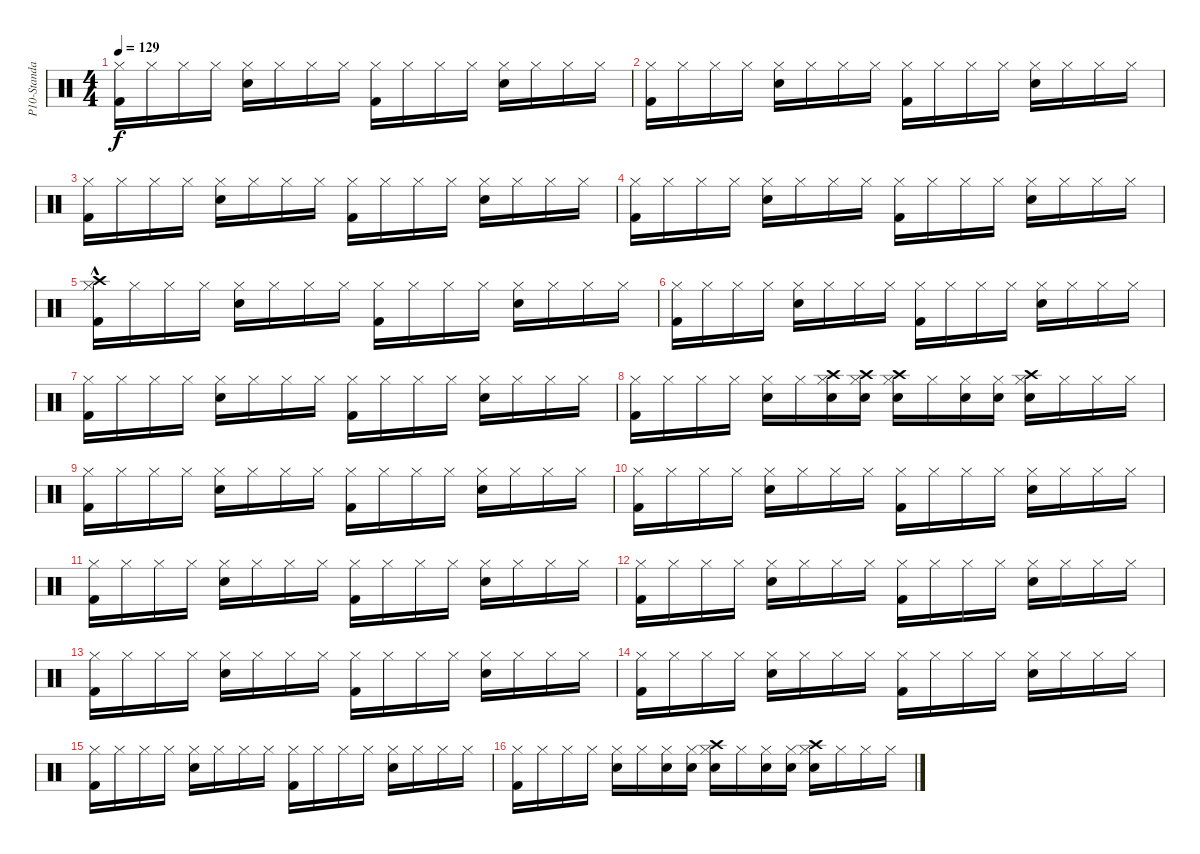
\track ("P10-Standard Kit 2" "P10-Standa") {instrument percussion}
\staff {score}
\articulation defaults
\ts (4 4)
\tempo 129
\clef neutral
\ks c
("Kick (hit) 2" "Hi-Hat (closed)").16{dy f} "Hi-Hat (closed)".16 "Hi-Hat (closed)".16 "Hi-Hat (closed)".16 ("Hi-Hat (closed)" "Snare (hit) 2").16 "Hi-Hat (closed)".16 "Hi-Hat (closed)".16 "Hi-Hat (closed)".16 ("Kick (hit) 2" "Hi-Hat (closed)").16 "Hi-Hat (closed)".16 "Hi-Hat (closed)".16 "Hi-Hat (closed)".16 ("Snare (hit) 2" "Hi-Hat (closed)").16 "Hi-Hat (closed)".16 "Hi-Hat (closed)".16 "Hi-Hat (closed)".16 |
("Kick (hit) 2" "Hi-Hat (closed)").16 "Hi-Hat (closed)".16 "Hi-Hat (closed)".16 "Hi-Hat (closed)".16 ("Snare (hit) 2" "Hi-Hat (closed)").16 "Hi-Hat (closed)".16 "Hi-Hat (closed)".16 "Hi-Hat (closed)".16 ("Hi-Hat (closed)" "Kick (hit) 2").16 "Hi-Hat (closed)".16 "Hi-Hat (closed)".16 "Hi-Hat (closed)".16 ("Snare (hit) 2" "Hi-Hat (closed)").16 "Hi-Hat (closed)".16 "Hi-Hat (closed)".16 "Hi-Hat (closed)".16 |
("Kick (hit) 2" "Hi-Hat (closed)").16 "Hi-Hat (closed)".16 "Hi-Hat (closed)".16 "Hi-Hat (closed)".16 ("Snare (hit) 2" "Hi-Hat (closed)").16 "Hi-Hat (closed)".16 "Hi-Hat (closed)".16 "Hi-Hat (closed)".16 ("Hi-Hat (closed)" "Kick (hit) 2").16 "Hi-Hat (closed)".16 "Hi-Hat (closed)".16 "Hi-Hat (closed)".16 ("Snare (hit) 2" "Hi-Hat (closed)").16 "Hi-Hat (closed)".16 "Hi-Hat (closed)".16 "Hi-Hat (closed)".16 |
("Kick (hit) 2" "Hi-Hat (closed)").16 "Hi-Hat (closed)".16 "Hi-Hat (closed)".16 "Hi-Hat (closed)".16 ("Hi-Hat (closed)" "Snare (hit) 2").16 "Hi-Hat (closed)".16 "Hi-Hat (closed)".16 "Hi-Hat (closed)".16 ("Kick (hit) 2" "Hi-Hat (closed)").16 "Hi-Hat (closed)".16 "Hi-Hat (closed)".16 "Hi-Hat (closed)".16 ("Hi-Hat (closed)" "Snare (hit) 2").16 "Hi-Hat (closed)".16 "Hi-Hat (closed)".16 "Hi-Hat (closed)".16 |
("Hi-Hat (closed)" "Kick (hit) 2" "Crash high (hit)"{hac}).16 "Hi-Hat (closed)".16 "Hi-Hat (closed)".16 "Hi-Hat (closed)".16 ("Snare (hit) 2" "Hi-Hat (closed)").16 "Hi-Hat (closed)".16 "Hi-Hat (closed)".16 "Hi-Hat (closed)".16 ("Kick (hit) 2" "Hi-Hat (closed)").16 "Hi-Hat (closed)".16 "Hi-Hat (closed)".16 "Hi-Hat (closed)".16 ("Snare (hit) 2" "Hi-Hat (closed)").16 "Hi-Hat (closed)".16 "Hi-Hat (closed)".16 "Hi-Hat (closed)".16 |
("Kick (hit) 2" "Hi-Hat (closed)").16 "Hi-Hat (closed)".16 "Hi-Hat (closed)".16 "Hi-Hat (closed)".16 ("Hi-Hat (closed)" "Snare (hit) 2").16 "Hi-Hat (closed)".16 "Hi-Hat (closed)".16 "Hi-Hat (closed)".16 ("Kick (hit) 2" "Hi-Hat (closed)").16 "Hi-Hat (closed)".16 "Hi-Hat (closed)".16 "Hi-Hat (closed)".16 ("Snare (hit) 2" "Hi-Hat (closed)").16 "Hi-Hat (closed)".16 "Hi-Hat (closed)".16 "Hi-Hat (closed)".16 |
("Kick (hit) 2" "Hi-Hat (closed)").16 "Hi-Hat (closed)".16 "Hi-Hat (closed)".16 "Hi-Hat (closed)".16 ("Snare (hit) 2" "Hi-Hat (closed)").16 "Hi-Hat (closed)".16 "Hi-Hat (closed)".16 "Hi-Hat (closed)".16 ("Hi-Hat (closed)" "Kick (hit) 2").16 "Hi-Hat (closed)".16 "Hi-Hat (closed)".16 "Hi-Hat (closed)".16 ("Snare (hit) 2" "Hi-Hat (closed)").16 "Hi-Hat (closed)".16 "Hi-Hat (closed)".16 "Hi-Hat (closed)".16 |
("Hi-Hat (closed)" "Kick (hit) 2").16 "Hi-Hat (closed)".16 "Hi-Hat (closed)".16 "Hi-Hat (closed)".16 ("Snare (hit) 2" "Hi-Hat (closed)").16 "Hi-Hat (closed)".16 ("Hi-Hat (closed)" "Snare (hit) 2" "Crash high (hit)").16 ("Hi-Hat (closed)" "Snare (hit) 2" "Crash high (hit)").16 ("Crash high (hit)" "Hi-Hat (closed)" "Snare (hit) 2").16 "Hi-Hat (closed)".16 ("Hi-Hat (closed)" "Snare (hit) 2").16 ("Hi-Hat (closed)" "Snare (hit) 2").16 ("Hi-Hat (closed)" "Snare (hit) 2" "Crash high (hit)").16 "Hi-Hat (closed)".16 "Hi-Hat (closed)".16 "Hi-Hat (closed)".16 |
("Kick (hit) 2" "Hi-Hat (closed)").16 "Hi-Hat (closed)".16 "Hi-Hat (closed)".16 "Hi-Hat (closed)".16 ("Hi-Hat (closed)" "Snare (hit) 2").16 "Hi-Hat (closed)".16 "Hi-Hat (closed)".16 "Hi-Hat (closed)".16 ("Kick (hit) 2" "Hi-Hat (closed)").16 "Hi-Hat (closed)".16 "Hi-Hat (closed)".16 "Hi-Hat (closed)".16 ("Snare (hit) 2" "Hi-Hat (closed)").16 "Hi-Hat (closed)".16 "Hi-Hat (closed)".16 "Hi-Hat (closed)".16 |
("Hi-Hat (closed)" "Kick (hit) 2").16 "Hi-Hat (closed)".16 "Hi-Hat (closed)".16 "Hi-Hat (closed)".16 ("Snare (hit) 2" "Hi-Hat (closed)").16 "Hi-Hat (closed)".16 "Hi-Hat (closed)".16 "Hi-Hat (closed)".16 ("Hi-Hat (closed)" "Kick (hit) 2").16 "Hi-Hat (closed)".16 "Hi-Hat (closed)".16 "Hi-Hat (closed)".16 ("Snare (hit) 2" "Hi-Hat (closed)").16 "Hi-Hat (closed)".16 "Hi-Hat (closed)".16 "Hi-Hat (closed)".16 |
("Kick (hit) 2" "Hi-Hat (closed)").16 "Hi-Hat (closed)".16 "Hi-Hat (closed)".16 "Hi-Hat (closed)".16 ("Hi-Hat (closed)" "Snare (hit) 2").16 "Hi-Hat (closed)".16 "Hi-Hat (closed)".16 "Hi-Hat (closed)".16 ("Kick (hit) 2" "Hi-Hat (closed)").16 "Hi-Hat (closed)".16 "Hi-Hat (closed)".16 "Hi-Hat (closed)".16 ("Hi-Hat (closed)" "Snare (hit) 2").16 "Hi-Hat (closed)".16 "Hi-Hat (closed)".16 "Hi-Hat (closed)".16 |
("Kick (hit) 2" "Hi-Hat (closed)").16 "Hi-Hat (closed)".16 "Hi-Hat (closed)".16 "Hi-Hat (closed)".16 ("Snare (hit) 2" "Hi-Hat (closed)").16 "Hi-Hat (closed)".16 "Hi-Hat (closed)".16 "Hi-Hat (closed)".16 ("Hi-Hat (closed)" "Kick (hit) 2").16 "Hi-Hat (closed)".16 "Hi-Hat (closed)".16 "Hi-Hat (closed)".16 ("Snare (hit) 2" "Hi-Hat (closed)").16 "Hi-Hat (closed)".16 "Hi-Hat (closed)".16 "Hi-Hat (closed)".16 |
("Kick (hit) 2" "Hi-Hat (closed)").16 "Hi-Hat (closed)".16 "Hi-Hat (closed)".16 "Hi-Hat (closed)".16 ("Snare (hit) 2" "Hi-Hat (closed)").16 "Hi-Hat (closed)".16 "Hi-Hat (closed)".16 "Hi-Hat (closed)".16 ("Hi-Hat (closed)" "Kick (hit) 2").16 "Hi-Hat (closed)".16 "Hi-Hat (closed)".16 "Hi-Hat (closed)".16 ("Snare (hit) 2" "Hi-Hat (closed)").16 "Hi-Hat (closed)".16 "Hi-Hat (closed)".16 "Hi-Hat (closed)".16 |
("Kick (hit) 2" "Hi-Hat (closed)").16 "Hi-Hat (closed)".16 "Hi-Hat (closed)".16 "Hi-Hat (closed)".16 ("Snare (hit) 2" "Hi-Hat (closed)").16 "Hi-Hat (closed)".16 "Hi-Hat (closed)".16 "Hi-Hat (closed)".16 ("Kick (hit) 2" "Hi-Hat (closed)").16 "Hi-Hat (closed)".16 "Hi-Hat (closed)".16 "Hi-Hat (closed)".16 ("Hi-Hat (closed)" "Snare (hit) 2").16 "Hi-Hat (closed)".16 "Hi-Hat (closed)".16 "Hi-Hat (closed)".16 |
("Kick (hit) 2" "Hi-Hat (closed)").16 "Hi-Hat (closed)".16 "Hi-Hat (closed)".16 "Hi-Hat (closed)".16 ("Snare (hit) 2" "Hi-Hat (closed)").16 "Hi-Hat (closed)".16 "Hi-Hat (closed)".16 "Hi-Hat (closed)".16 ("Kick (hit) 2" "Hi-Hat (closed)").16 "Hi-Hat (closed)".16 "Hi-Hat (closed)".16 "Hi-Hat (closed)".16 ("Snare (hit) 2" "Hi-Hat (closed)").16 "Hi-Hat (closed)".16 "Hi-Hat (closed)".16 "Hi-Hat (closed)".16 |
("Kick (hit) 2" "Hi-Hat (closed)").16 "Hi-Hat (closed)".16 "Hi-Hat (closed)".16 "Hi-Hat (closed)".16 ("Hi-Hat (closed)" "Snare (hit) 2").16 "Hi-Hat (closed)".16 ("Hi-Hat (closed)" "Snare (hit) 2").16 ("Hi-Hat (closed)" "Snare (hit) 2").16 ("Crash high (hit)" "Hi-Hat (closed)" "Snare (hit) 2").16 "Hi-Hat (closed)".16 ("Snare (hit) 2" "Hi-Hat (closed)").16 ("Snare (hit) 2" "Hi-Hat (closed)").16 ("Crash high (hit)" "Snare (hit) 2" "Hi-Hat (closed)").16 "Hi-Hat (closed)".16 "Hi-Hat (closed)".16 "Hi-Hat (closed)".16
